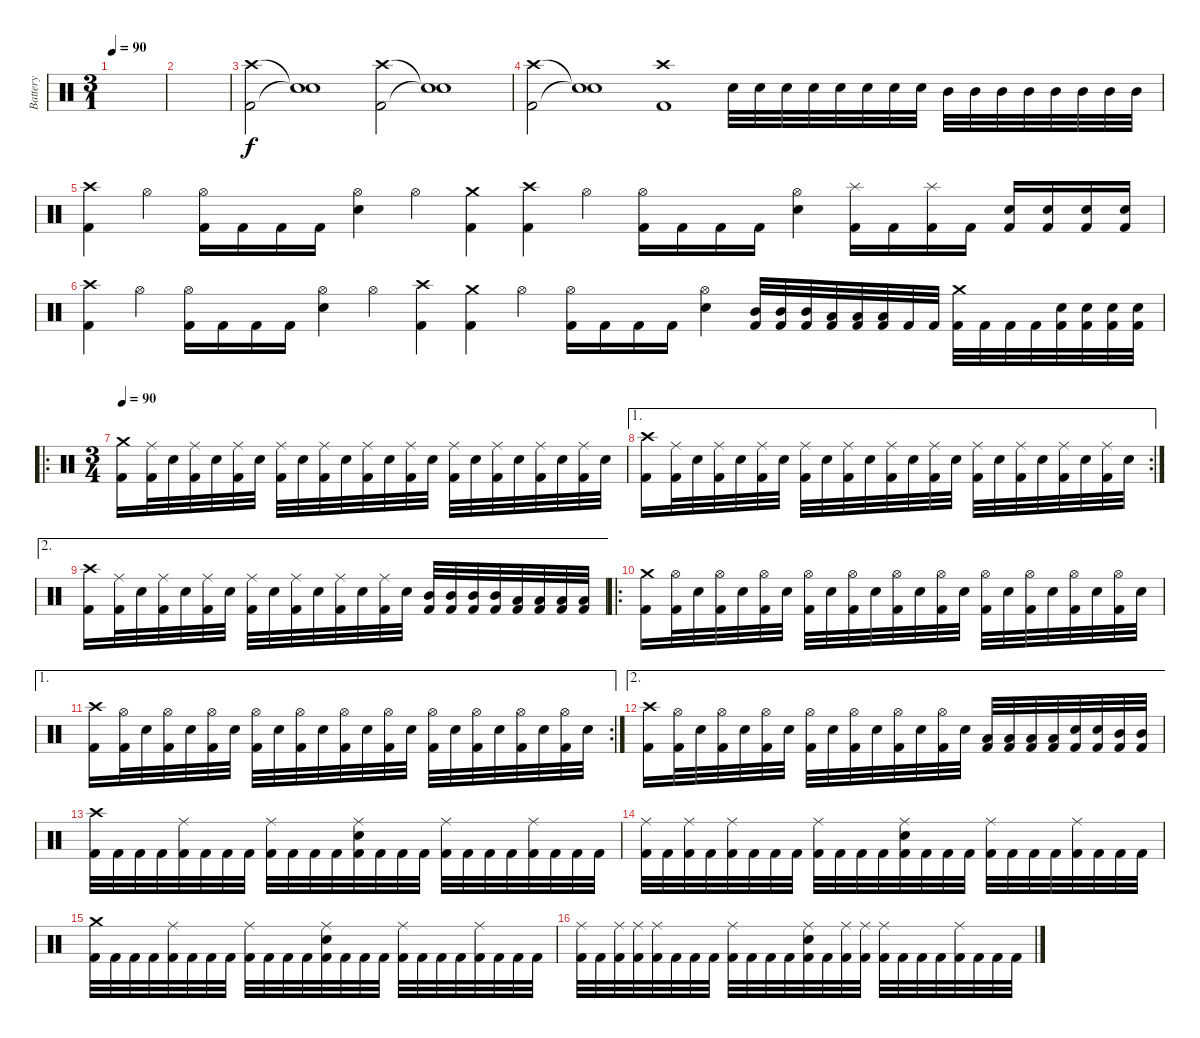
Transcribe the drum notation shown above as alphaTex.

\track ("Battery" "Battery") {instrument percussion}
\staff {score}
\articulation defaults
\ts (3 1)
\tempo 90
\tempo 130
\tempo 90
\clef neutral
\ks c
|
|
("Kick (hit) 2" "Crash high (hit)").2 ("Snare (hit)"{t} "Snare (hit)"{t}).1 ("Kick (hit) 2" "Crash high (hit)").2 ("Snare (hit)"{t} "Snare (hit)"{t}).1 |
("Kick (hit) 2" "Crash high (hit)").2 ("Snare (hit)"{t} "Snare (hit)"{t}).1 ("Kick (hit) 2" "Crash high (hit)").1 "Snare (hit) 2".32 "Snare (hit) 2".32 "Snare (hit) 2".32 "Snare (hit) 2".32 "Snare (hit) 2".32 "Snare (hit) 2".32 "Snare (hit) 2".32 "Snare (hit) 2".32 "Mid Tom (hit)".32 "Mid Tom (hit)".32 "Mid Tom (hit)".32 "Mid Tom (hit)".32 "Mid Tom (hit)".32 "Mid Tom (hit)".32 "Mid Tom (hit)".32 "Mid Tom (hit)".32 |
("Kick (hit) 2" "Crash high (hit)").4 "Hi-Hat (open)".4 ("Kick (hit) 2" "Hi-Hat (open)").16 "Kick (hit) 2".16 "Kick (hit) 2".16 "Kick (hit) 2".16 ("Snare (hit) 2" "Hi-Hat (open)").4 "Hi-Hat (open)".4 ("Kick (hit) 2" "Crash medium (hit)").4 ("Kick (hit) 2" "Crash high (hit)").4 "Hi-Hat (open)".4 ("Kick (hit) 2" "Hi-Hat (open)").16 "Kick (hit) 2".16 "Kick (hit) 2".16 "Kick (hit) 2".16 ("Snare (hit) 2" "Hi-Hat (open)").4 ("Kick (hit) 2" "Splash (hit)").16 "Kick (hit) 2".16 ("Kick (hit) 2" "Splash (hit)").16 "Kick (hit) 2".16 ("Kick (hit) 2" "Snare (hit) 2").16 ("Kick (hit) 2" "Snare (hit) 2").16 ("Kick (hit) 2" "Snare (hit) 2").16 ("Kick (hit) 2" "Snare (hit) 2").16 |
("Kick (hit) 2" "Crash high (hit)").4 "Hi-Hat (open)".4 ("Kick (hit) 2" "Hi-Hat (open)").16 "Kick (hit) 2".16 "Kick (hit) 2".16 "Kick (hit) 2".16 ("Snare (hit) 2" "Hi-Hat (open)").4 "Hi-Hat (open)".4 ("Kick (hit) 2" "Crash high (hit)").4 ("Kick (hit) 2" "Crash medium (hit)").4 "Hi-Hat (open)".4 ("Kick (hit) 2" "Hi-Hat (open)").16 "Kick (hit) 2".16 "Kick (hit) 2".16 "Kick (hit) 2".16 ("Snare (hit) 2" "Hi-Hat (open)").4 ("Kick (hit) 2" "Mid Tom (hit)").32 ("Kick (hit) 2" "Mid Tom (hit)").32 ("Kick (hit) 2" "Mid Tom (hit)").32 ("Kick (hit) 2" "Low Tom (hit)").32 ("Kick (hit) 2" "Low Tom (hit)").32 ("Kick (hit) 2" "Low Tom (hit)").32 "Kick (hit) 2".32 "Kick (hit) 2".32 ("Kick (hit) 2" "Crash medium (hit)").32 "Kick (hit) 2".32 "Kick (hit) 2".32 "Kick (hit) 2".32 ("Kick (hit) 2" "Snare (hit) 2").32 ("Kick (hit) 2" "Snare (hit) 2").32 ("Kick (hit) 2" "Snare (hit) 2").32 ("Kick (hit) 2" "Snare (hit) 2").32 |
\ro
\ts (3 4)
\tempo 90
("Kick (hit) 2" "Crash medium (hit)").16 ("Kick (hit) 2" "Ride (middle)").32 "Snare (hit) 2".32 ("Kick (hit) 2" "Ride (middle)").32 "Snare (hit) 2".32 ("Kick (hit) 2" "Ride (middle)").32 "Snare (hit) 2".32 ("Kick (hit) 2" "Ride (middle)").32 "Snare (hit) 2".32 ("Kick (hit) 2" "Ride (middle)").32 "Snare (hit) 2".32 ("Kick (hit) 2" "Ride (middle)").32 "Snare (hit) 2".32 ("Kick (hit) 2" "Ride (middle)").32 "Snare (hit) 2".32 ("Kick (hit) 2" "Ride (middle)").32 "Snare (hit) 2".32 ("Kick (hit) 2" "Ride (middle)").32 "Snare (hit) 2".32 ("Kick (hit) 2" "Ride (middle)").32 "Snare (hit) 2".32 ("Kick (hit) 2" "Ride (middle)").32 "Snare (hit) 2".32 |
\ae 1
\rc 2
("Kick (hit) 2" "Crash high (hit)").16 ("Kick (hit) 2" "Ride (middle)").32 "Snare (hit) 2".32 ("Kick (hit) 2" "Ride (middle)").32 "Snare (hit) 2".32 ("Kick (hit) 2" "Ride (middle)").32 "Snare (hit) 2".32 ("Kick (hit) 2" "Ride (middle)").32 "Snare (hit) 2".32 ("Kick (hit) 2" "Ride (middle)").32 "Snare (hit) 2".32 ("Kick (hit) 2" "Ride (middle)").32 "Snare (hit) 2".32 ("Kick (hit) 2" "Ride (middle)").32 "Snare (hit) 2".32 ("Kick (hit) 2" "Ride (middle)").32 "Snare (hit) 2".32 ("Kick (hit) 2" "Ride (middle)").32 "Snare (hit) 2".32 ("Kick (hit) 2" "Ride (middle)").32 "Snare (hit) 2".32 ("Kick (hit) 2" "Ride (middle)").32 "Snare (hit) 2".32 |
\ae 2
("Kick (hit) 2" "Crash high (hit)").16 ("Kick (hit) 2" "Ride (middle)").32 "Snare (hit) 2".32 ("Kick (hit) 2" "Ride (middle)").32 "Snare (hit) 2".32 ("Kick (hit) 2" "Ride (middle)").32 "Snare (hit) 2".32 ("Kick (hit) 2" "Ride (middle)").32 "Snare (hit) 2".32 ("Kick (hit) 2" "Ride (middle)").32 "Snare (hit) 2".32 ("Kick (hit) 2" "Ride (middle)").32 "Snare (hit) 2".32 ("Kick (hit) 2" "Ride (middle)").32 "Snare (hit) 2".32 ("Kick (hit) 2" "Mid Tom (hit)").32 ("Kick (hit) 2" "Mid Tom (hit)").32 ("Kick (hit) 2" "Mid Tom (hit)").32 ("Kick (hit) 2" "Mid Tom (hit)").32 ("Kick (hit) 2" "Low Tom (hit)").32 ("Kick (hit) 2" "Low Tom (hit)").32 ("Kick (hit) 2" "Low Tom (hit)").32 ("Kick (hit) 2" "Low Tom (hit)").32 |
\ro
("Kick (hit) 2" "Crash medium (hit)").16 ("Kick (hit) 2" "Hi-Hat (open)").32 "Snare (hit) 2".32 ("Kick (hit) 2" "Hi-Hat (open)").32 "Snare (hit) 2".32 ("Kick (hit) 2" "Hi-Hat (open)").32 "Snare (hit) 2".32 ("Kick (hit) 2" "Hi-Hat (open)").32 "Snare (hit) 2".32 ("Kick (hit) 2" "Hi-Hat (open)").32 "Snare (hit) 2".32 ("Kick (hit) 2" "Hi-Hat (open)").32 "Snare (hit) 2".32 ("Kick (hit) 2" "Hi-Hat (open)").32 "Snare (hit) 2".32 ("Kick (hit) 2" "Hi-Hat (open)").32 "Snare (hit) 2".32 ("Kick (hit) 2" "Hi-Hat (open)").32 "Snare (hit) 2".32 ("Kick (hit) 2" "Hi-Hat (open)").32 "Snare (hit) 2".32 ("Kick (hit) 2" "Hi-Hat (open)").32 "Snare (hit) 2".32 |
\ae 1
\rc 2
("Kick (hit) 2" "Crash high (hit)").16 ("Kick (hit) 2" "Hi-Hat (open)").32 "Snare (hit) 2".32 ("Kick (hit) 2" "Hi-Hat (open)").32 "Snare (hit) 2".32 ("Kick (hit) 2" "Hi-Hat (open)").32 "Snare (hit) 2".32 ("Kick (hit) 2" "Hi-Hat (open)").32 "Snare (hit) 2".32 ("Kick (hit) 2" "Hi-Hat (open)").32 "Snare (hit) 2".32 ("Kick (hit) 2" "Hi-Hat (open)").32 "Snare (hit) 2".32 ("Kick (hit) 2" "Hi-Hat (open)").32 "Snare (hit) 2".32 ("Kick (hit) 2" "Hi-Hat (open)").32 "Snare (hit) 2".32 ("Kick (hit) 2" "Hi-Hat (open)").32 "Snare (hit) 2".32 ("Kick (hit) 2" "Hi-Hat (open)").32 "Snare (hit) 2".32 ("Kick (hit) 2" "Hi-Hat (open)").32 "Snare (hit) 2".32 |
\ae 2
("Kick (hit) 2" "Crash high (hit)").16 ("Kick (hit) 2" "Hi-Hat (open)").32 "Snare (hit) 2".32 ("Kick (hit) 2" "Hi-Hat (open)").32 "Snare (hit) 2".32 ("Kick (hit) 2" "Hi-Hat (open)").32 "Snare (hit) 2".32 ("Kick (hit) 2" "Hi-Hat (open)").32 "Snare (hit) 2".32 ("Kick (hit) 2" "Hi-Hat (open)").32 "Snare (hit) 2".32 ("Kick (hit) 2" "Hi-Hat (open)").32 "Snare (hit) 2".32 ("Kick (hit) 2" "Hi-Hat (open)").32 "Snare (hit) 2".32 ("Kick (hit) 2" "Low Tom (hit)").32 ("Kick (hit) 2" "Low Tom (hit)").32 ("Kick (hit) 2" "Low Tom (hit)").32 ("Kick (hit) 2" "Low Tom (hit)").32 ("Kick (hit) 2" "Snare (hit) 2").32 ("Kick (hit) 2" "Snare (hit) 2").32 ("Kick (hit) 2" "Mid Tom (hit)").32 ("Kick (hit) 2" "Mid Tom (hit)").32 |
("Kick (hit) 2" "Crash high (hit)").32 "Kick (hit) 2".32 "Kick (hit) 2".32 "Kick (hit) 2".32 ("Kick (hit) 2" "Ride (middle)").32 "Kick (hit) 2".32 "Kick (hit) 2".32 "Kick (hit) 2".32 ("Kick (hit) 2" "Ride (middle)").32 "Kick (hit) 2".32 "Kick (hit) 2".32 "Kick (hit) 2".32 ("Kick (hit) 2" "Snare (hit) 2" "Ride (middle)").32 "Kick (hit) 2".32 "Kick (hit) 2".32 "Kick (hit) 2".32 ("Kick (hit) 2" "Ride (middle)").32 "Kick (hit) 2".32 "Kick (hit) 2".32 "Kick (hit) 2".32 ("Kick (hit) 2" "Ride (middle)").32 "Kick (hit) 2".32 "Kick (hit) 2".32 "Kick (hit) 2".32 |
("Kick (hit) 2" "Ride (middle)").32 "Kick (hit) 2".32 ("Kick (hit) 2" "Ride (middle)").32 "Kick (hit) 2".32 ("Kick (hit) 2" "Ride (middle)").32 "Kick (hit) 2".32 "Kick (hit) 2".32 "Kick (hit) 2".32 ("Kick (hit) 2" "Ride (middle)").32 "Kick (hit) 2".32 "Kick (hit) 2".32 "Kick (hit) 2".32 ("Kick (hit) 2" "Snare (hit) 2" "Ride (middle)").32 "Kick (hit) 2".32 "Kick (hit) 2".32 "Kick (hit) 2".32 ("Kick (hit) 2" "Ride (middle)").32 "Kick (hit) 2".32 "Kick (hit) 2".32 "Kick (hit) 2".32 ("Kick (hit) 2" "Ride (middle)").32 "Kick (hit) 2".32 "Kick (hit) 2".32 "Kick (hit) 2".32 |
("Kick (hit) 2" "Crash medium (hit)").32 "Kick (hit) 2".32 "Kick (hit) 2".32 "Kick (hit) 2".32 ("Kick (hit) 2" "Ride (middle)").32 "Kick (hit) 2".32 "Kick (hit) 2".32 "Kick (hit) 2".32 ("Kick (hit) 2" "Ride (middle)").32 "Kick (hit) 2".32 "Kick (hit) 2".32 "Kick (hit) 2".32 ("Kick (hit) 2" "Snare (hit) 2" "Ride (middle)").32 "Kick (hit) 2".32 "Kick (hit) 2".32 "Kick (hit) 2".32 ("Kick (hit) 2" "Ride (middle)").32 "Kick (hit) 2".32 "Kick (hit) 2".32 "Kick (hit) 2".32 ("Kick (hit) 2" "Ride (middle)").32 "Kick (hit) 2".32 "Kick (hit) 2".32 "Kick (hit) 2".32 |
("Kick (hit) 2" "Ride (middle)").32 "Kick (hit) 2".32 ("Kick (hit) 2" "Ride (middle)").32 ("Kick (hit) 2" "Ride (middle)").32 ("Kick (hit) 2" "Ride (middle)").32 "Kick (hit) 2".32 "Kick (hit) 2".32 "Kick (hit) 2".32 ("Kick (hit) 2" "Ride (middle)").32 "Kick (hit) 2".32 "Kick (hit) 2".32 "Kick (hit) 2".32 ("Kick (hit) 2" "Snare (hit) 2" "Ride (middle)").32 "Kick (hit) 2".32 ("Kick (hit) 2" "Ride (middle)").32 ("Kick (hit) 2" "Ride (middle)").32 ("Kick (hit) 2" "Ride (middle)").32 "Kick (hit) 2".32 "Kick (hit) 2".32 "Kick (hit) 2".32 ("Kick (hit) 2" "Ride (middle)").32 "Kick (hit) 2".32 "Kick (hit) 2".32 "Kick (hit) 2".32
